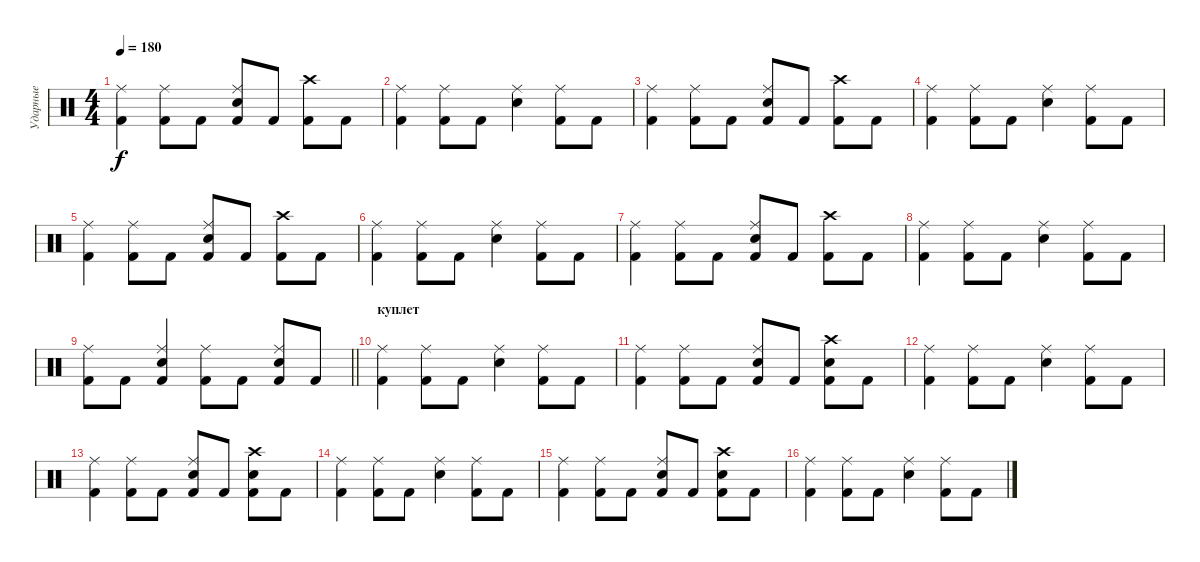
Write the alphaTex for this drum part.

\track ("Ударные" "Ударные") {instrument percussion}
\staff {score}
\articulation defaults
\ts (4 4)
\tempo 180
\clef neutral
\ks c
("Kick (hit) 2" "Ride (middle)").4{dy f} ("Kick (hit) 2" "Ride (middle)").8 "Kick (hit) 2".8 ("Kick (hit) 2" "Snare (hit) 2" "Ride (middle)").8 "Kick (hit) 2".8 ("Kick (hit) 2" "Crash high (hit)").8 "Kick (hit) 2".8 |
("Kick (hit) 2" "Ride (middle)").4 ("Kick (hit) 2" "Ride (middle)").8 "Kick (hit) 2".8 ("Snare (hit) 2" "Ride (middle)").4 ("Kick (hit) 2" "Ride (middle)").8 "Kick (hit) 2".8 |
("Kick (hit) 2" "Ride (middle)").4 ("Kick (hit) 2" "Ride (middle)").8 "Kick (hit) 2".8 ("Kick (hit) 2" "Snare (hit) 2" "Ride (middle)").8 "Kick (hit) 2".8 ("Kick (hit) 2" "Crash high (hit)").8 "Kick (hit) 2".8 |
("Kick (hit) 2" "Ride (middle)").4 ("Kick (hit) 2" "Ride (middle)").8 "Kick (hit) 2".8 ("Snare (hit) 2" "Ride (middle)").4 ("Kick (hit) 2" "Ride (middle)").8 "Kick (hit) 2".8 |
("Kick (hit) 2" "Ride (middle)").4 ("Kick (hit) 2" "Ride (middle)").8 "Kick (hit) 2".8 ("Kick (hit) 2" "Snare (hit) 2" "Ride (middle)").8 "Kick (hit) 2".8 ("Kick (hit) 2" "Crash high (hit)").8 "Kick (hit) 2".8 |
("Kick (hit) 2" "Ride (middle)").4 ("Kick (hit) 2" "Ride (middle)").8 "Kick (hit) 2".8 ("Snare (hit) 2" "Ride (middle)").4 ("Kick (hit) 2" "Ride (middle)").8 "Kick (hit) 2".8 |
("Kick (hit) 2" "Ride (middle)").4 ("Kick (hit) 2" "Ride (middle)").8 "Kick (hit) 2".8 ("Kick (hit) 2" "Snare (hit) 2" "Ride (middle)").8 "Kick (hit) 2".8 ("Kick (hit) 2" "Crash high (hit)").8 "Kick (hit) 2".8 |
("Kick (hit) 2" "Ride (middle)").4 ("Kick (hit) 2" "Ride (middle)").8 "Kick (hit) 2".8 ("Snare (hit) 2" "Ride (middle)").4 ("Kick (hit) 2" "Ride (middle)").8 "Kick (hit) 2".8 |
\barLineRight lightlight
("Kick (hit) 2" "Ride (middle)").8 "Kick (hit) 2".8 ("Kick (hit) 2" "Snare (hit) 2" "Ride (middle)").4 ("Kick (hit) 2" "Ride (middle)").8 "Kick (hit) 2".8 ("Kick (hit) 2" "Snare (hit) 2" "Ride (middle)").8 "Kick (hit) 2".8 |
\section ("" "куплет")
("Kick (hit) 2" "Ride (middle)").4 ("Kick (hit) 2" "Ride (middle)").8 "Kick (hit) 2".8 ("Snare (hit) 2" "Ride (middle)").4 ("Kick (hit) 2" "Ride (middle)").8 "Kick (hit) 2".8 |
("Kick (hit) 2" "Ride (middle)").4 ("Kick (hit) 2" "Ride (middle)").8 "Kick (hit) 2".8 ("Kick (hit) 2" "Snare (hit) 2" "Ride (middle)").8 "Kick (hit) 2".8 ("Kick (hit) 2" "Snare (hit) 2" "Crash high (hit)").8 "Kick (hit) 2".8 |
("Kick (hit) 2" "Ride (middle)").4 ("Kick (hit) 2" "Ride (middle)").8 "Kick (hit) 2".8 ("Snare (hit) 2" "Ride (middle)").4 ("Kick (hit) 2" "Ride (middle)").8 "Kick (hit) 2".8 |
("Kick (hit) 2" "Ride (middle)").4 ("Kick (hit) 2" "Ride (middle)").8 "Kick (hit) 2".8 ("Kick (hit) 2" "Snare (hit) 2" "Ride (middle)").8 "Kick (hit) 2".8 ("Kick (hit) 2" "Snare (hit) 2" "Crash high (hit)").8 "Kick (hit) 2".8 |
("Kick (hit) 2" "Ride (middle)").4 ("Kick (hit) 2" "Ride (middle)").8 "Kick (hit) 2".8 ("Snare (hit) 2" "Ride (middle)").4 ("Kick (hit) 2" "Ride (middle)").8 "Kick (hit) 2".8 |
("Kick (hit) 2" "Ride (middle)").4 ("Kick (hit) 2" "Ride (middle)").8 "Kick (hit) 2".8 ("Kick (hit) 2" "Snare (hit) 2" "Ride (middle)").8 "Kick (hit) 2".8 ("Kick (hit) 2" "Snare (hit) 2" "Crash high (hit)").8 "Kick (hit) 2".8 |
("Kick (hit) 2" "Ride (middle)").4 ("Kick (hit) 2" "Ride (middle)").8 "Kick (hit) 2".8 ("Snare (hit) 2" "Ride (middle)").4 ("Kick (hit) 2" "Ride (middle)").8 "Kick (hit) 2".8
